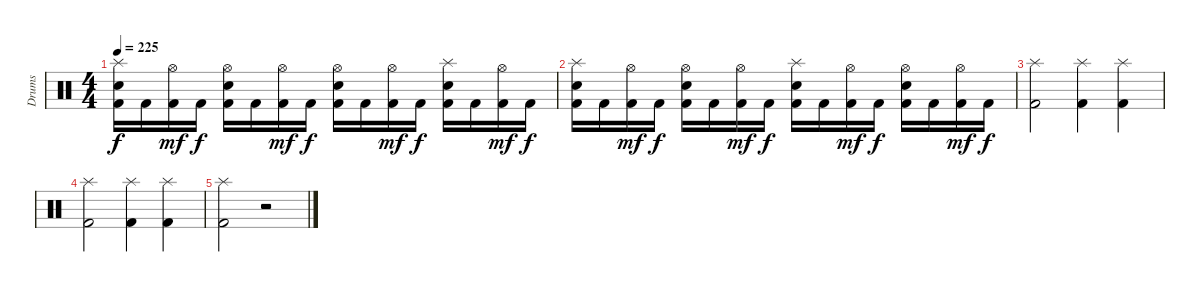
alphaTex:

\track ("Drums" "Drums") {instrument percussion}
\staff {score}
\articulation defaults
\ts (4 4)
\tempo 225
\clef neutral
\ks c
("Splash (hit)" "Snare (hit) 2" "Kick (hit) 2").16{dy f} "Kick (hit) 2".16 ("Hi-Hat (open)" "Kick (hit) 2").16{dy mf} "Kick (hit) 2".16{dy f} ("Hi-Hat (open)" "Snare (hit) 2" "Kick (hit) 2").16 "Kick (hit) 2".16 ("Hi-Hat (open)" "Kick (hit) 2").16{dy mf} "Kick (hit) 2".16{dy f} ("Hi-Hat (open)" "Snare (hit) 2" "Kick (hit) 2").16 "Kick (hit) 2".16 ("Hi-Hat (open)" "Kick (hit) 2").16{dy mf} "Kick (hit) 2".16{dy f} ("Splash (hit)" "Snare (hit) 2" "Kick (hit) 2").16 "Kick (hit) 2".16 ("Hi-Hat (open)" "Kick (hit) 2").16{dy mf} "Kick (hit) 2".16{dy f} |
("Splash (hit)" "Snare (hit) 2" "Kick (hit) 2").16 "Kick (hit) 2".16 ("Hi-Hat (open)" "Kick (hit) 2").16{dy mf} "Kick (hit) 2".16{dy f} ("Hi-Hat (open)" "Snare (hit) 2" "Kick (hit) 2").16 "Kick (hit) 2".16 ("Hi-Hat (open)" "Kick (hit) 2").16{dy mf} "Kick (hit) 2".16{dy f} ("Splash (hit)" "Snare (hit) 2" "Kick (hit) 2").16 "Kick (hit) 2".16 ("Hi-Hat (open)" "Kick (hit) 2").16{dy mf} "Kick (hit) 2".16{dy f} ("Hi-Hat (open)" "Snare (hit) 2" "Kick (hit) 2").16 "Kick (hit) 2".16 ("Hi-Hat (open)" "Kick (hit) 2").16{dy mf} "Kick (hit) 2".16{dy f} |
("Splash (hit)" "Kick (hit) 2").2 ("Splash (hit)" "Kick (hit) 2").4 ("Splash (hit)" "Kick (hit) 2").4 |
("Splash (hit)" "Kick (hit) 2").2 ("Splash (hit)" "Kick (hit) 2").4 ("Splash (hit)" "Kick (hit) 2").4 |
("Splash (hit)" "Kick (hit) 2").2 r.2
